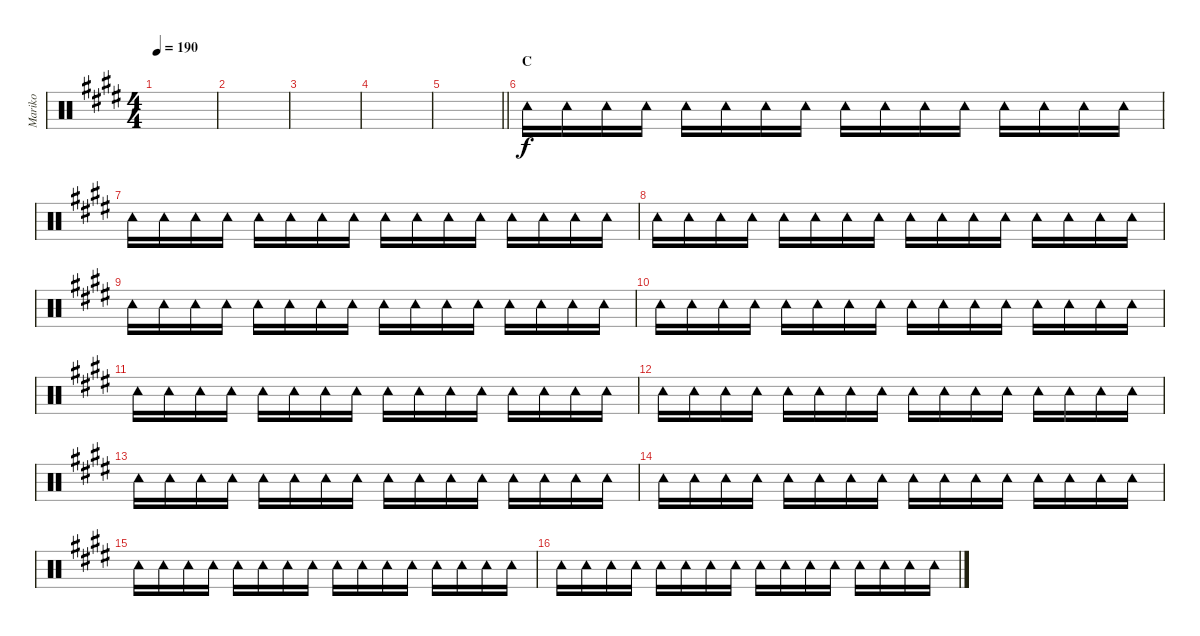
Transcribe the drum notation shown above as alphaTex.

\track ("Mariko" "Mariko") {mute instrument percussion}
\staff {score}
\articulation defaults
\ts (4 4)
\tempo 190
\clef neutral
\ks e
|
|
|
|
\barLineRight lightlight
|
\section ("" "C")
"Tambourine (hit)".16 "Tambourine (hit)".16 "Tambourine (hit)".16 "Tambourine (hit)".16 "Tambourine (hit)".16 "Tambourine (hit)".16 "Tambourine (hit)".16 "Tambourine (hit)".16 "Tambourine (hit)".16 "Tambourine (hit)".16 "Tambourine (hit)".16 "Tambourine (hit)".16 "Tambourine (hit)".16 "Tambourine (hit)".16 "Tambourine (hit)".16 "Tambourine (hit)".16 |
"Tambourine (hit)".16 "Tambourine (hit)".16 "Tambourine (hit)".16 "Tambourine (hit)".16 "Tambourine (hit)".16 "Tambourine (hit)".16 "Tambourine (hit)".16 "Tambourine (hit)".16 "Tambourine (hit)".16 "Tambourine (hit)".16 "Tambourine (hit)".16 "Tambourine (hit)".16 "Tambourine (hit)".16 "Tambourine (hit)".16 "Tambourine (hit)".16 "Tambourine (hit)".16 |
"Tambourine (hit)".16 "Tambourine (hit)".16 "Tambourine (hit)".16 "Tambourine (hit)".16 "Tambourine (hit)".16 "Tambourine (hit)".16 "Tambourine (hit)".16 "Tambourine (hit)".16 "Tambourine (hit)".16 "Tambourine (hit)".16 "Tambourine (hit)".16 "Tambourine (hit)".16 "Tambourine (hit)".16 "Tambourine (hit)".16 "Tambourine (hit)".16 "Tambourine (hit)".16 |
"Tambourine (hit)".16 "Tambourine (hit)".16 "Tambourine (hit)".16 "Tambourine (hit)".16 "Tambourine (hit)".16 "Tambourine (hit)".16 "Tambourine (hit)".16 "Tambourine (hit)".16 "Tambourine (hit)".16 "Tambourine (hit)".16 "Tambourine (hit)".16 "Tambourine (hit)".16 "Tambourine (hit)".16 "Tambourine (hit)".16 "Tambourine (hit)".16 "Tambourine (hit)".16 |
"Tambourine (hit)".16 "Tambourine (hit)".16 "Tambourine (hit)".16 "Tambourine (hit)".16 "Tambourine (hit)".16 "Tambourine (hit)".16 "Tambourine (hit)".16 "Tambourine (hit)".16 "Tambourine (hit)".16 "Tambourine (hit)".16 "Tambourine (hit)".16 "Tambourine (hit)".16 "Tambourine (hit)".16 "Tambourine (hit)".16 "Tambourine (hit)".16 "Tambourine (hit)".16 |
"Tambourine (hit)".16 "Tambourine (hit)".16 "Tambourine (hit)".16 "Tambourine (hit)".16 "Tambourine (hit)".16 "Tambourine (hit)".16 "Tambourine (hit)".16 "Tambourine (hit)".16 "Tambourine (hit)".16 "Tambourine (hit)".16 "Tambourine (hit)".16 "Tambourine (hit)".16 "Tambourine (hit)".16 "Tambourine (hit)".16 "Tambourine (hit)".16 "Tambourine (hit)".16 |
"Tambourine (hit)".16 "Tambourine (hit)".16 "Tambourine (hit)".16 "Tambourine (hit)".16 "Tambourine (hit)".16 "Tambourine (hit)".16 "Tambourine (hit)".16 "Tambourine (hit)".16 "Tambourine (hit)".16 "Tambourine (hit)".16 "Tambourine (hit)".16 "Tambourine (hit)".16 "Tambourine (hit)".16 "Tambourine (hit)".16 "Tambourine (hit)".16 "Tambourine (hit)".16 |
"Tambourine (hit)".16 "Tambourine (hit)".16 "Tambourine (hit)".16 "Tambourine (hit)".16 "Tambourine (hit)".16 "Tambourine (hit)".16 "Tambourine (hit)".16 "Tambourine (hit)".16 "Tambourine (hit)".16 "Tambourine (hit)".16 "Tambourine (hit)".16 "Tambourine (hit)".16 "Tambourine (hit)".16 "Tambourine (hit)".16 "Tambourine (hit)".16 "Tambourine (hit)".16 |
"Tambourine (hit)".16 "Tambourine (hit)".16 "Tambourine (hit)".16 "Tambourine (hit)".16 "Tambourine (hit)".16 "Tambourine (hit)".16 "Tambourine (hit)".16 "Tambourine (hit)".16 "Tambourine (hit)".16 "Tambourine (hit)".16 "Tambourine (hit)".16 "Tambourine (hit)".16 "Tambourine (hit)".16 "Tambourine (hit)".16 "Tambourine (hit)".16 "Tambourine (hit)".16 |
"Tambourine (hit)".16 "Tambourine (hit)".16 "Tambourine (hit)".16 "Tambourine (hit)".16 "Tambourine (hit)".16 "Tambourine (hit)".16 "Tambourine (hit)".16 "Tambourine (hit)".16 "Tambourine (hit)".16 "Tambourine (hit)".16 "Tambourine (hit)".16 "Tambourine (hit)".16 "Tambourine (hit)".16 "Tambourine (hit)".16 "Tambourine (hit)".16 "Tambourine (hit)".16 |
"Tambourine (hit)".16 "Tambourine (hit)".16 "Tambourine (hit)".16 "Tambourine (hit)".16 "Tambourine (hit)".16 "Tambourine (hit)".16 "Tambourine (hit)".16 "Tambourine (hit)".16 "Tambourine (hit)".16 "Tambourine (hit)".16 "Tambourine (hit)".16 "Tambourine (hit)".16 "Tambourine (hit)".16 "Tambourine (hit)".16 "Tambourine (hit)".16 "Tambourine (hit)".16
